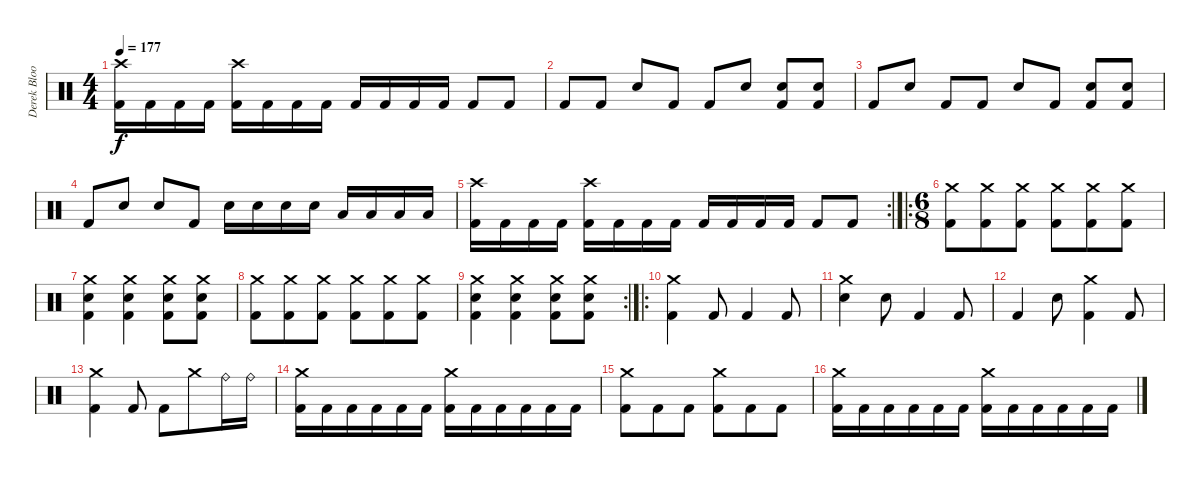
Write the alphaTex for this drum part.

\track ("Derek Bloom" "Derek Bloo") {instrument percussion}
\staff {score}
\articulation defaults
\ts (4 4)
\tempo 177
\clef neutral
\ks c
("Crash high (hit)" "Kick (hit) 2").16{dy f} "Kick (hit) 2".16 "Kick (hit) 2".16 "Kick (hit) 2".16 ("Crash high (hit)" "Kick (hit) 2").16 "Kick (hit) 2".16 "Kick (hit) 2".16 "Kick (hit) 2".16 "Kick (hit) 2".16 "Kick (hit) 2".16 "Kick (hit) 2".16 "Kick (hit) 2".16 "Kick (hit) 2".8 "Kick (hit) 2".8 |
"Kick (hit) 2".8 "Kick (hit) 2".8 "Electric Snare (hit)".8 "Kick (hit) 2".8 "Kick (hit) 2".8 "Electric Snare (hit)".8 ("Electric Snare (hit)" "Kick (hit) 2").8 ("Electric Snare (hit)" "Kick (hit) 2").8 |
"Kick (hit) 2".8 "Electric Snare (hit)".8 "Kick (hit) 2".8 "Kick (hit) 2".8 "Electric Snare (hit)".8 "Kick (hit) 2".8 ("Electric Snare (hit)" "Kick (hit) 2").8 ("Electric Snare (hit)" "Kick (hit) 2").8 |
"Kick (hit) 2".8 "Electric Snare (hit)".8 "Electric Snare (hit)".8 "Kick (hit) 2".8 "Electric Snare (hit)".16 "Electric Snare (hit)".16 "Electric Snare (hit)".16 "Electric Snare (hit)".16 "Low Tom (hit)".16 "Low Tom (hit)".16 "Low Tom (hit)".16 "Low Tom (hit)".16 |
\rc 2
("Crash high (hit)" "Kick (hit) 2").16 "Kick (hit) 2".16 "Kick (hit) 2".16 "Kick (hit) 2".16 ("Crash high (hit)" "Kick (hit) 2").16 "Kick (hit) 2".16 "Kick (hit) 2".16 "Kick (hit) 2".16 "Kick (hit) 2".16 "Kick (hit) 2".16 "Kick (hit) 2".16 "Kick (hit) 2".16 "Kick (hit) 2".8 "Kick (hit) 2".8 |
\ro
\ts (6 8)
("Crash medium (hit)" "Kick (hit) 2").8 ("Crash medium (hit)" "Kick (hit) 2").8 ("Crash medium (hit)" "Kick (hit) 2").8 ("Crash medium (hit)" "Kick (hit) 2").8 ("Crash medium (hit)" "Kick (hit) 2").8 ("Crash medium (hit)" "Kick (hit) 2").8 |
("Crash medium (hit)" "Electric Snare (hit)" "Kick (hit) 2").4 ("Crash medium (hit)" "Electric Snare (hit)" "Kick (hit) 2").4 ("Crash medium (hit)" "Electric Snare (hit)" "Kick (hit) 2").8 ("Crash medium (hit)" "Electric Snare (hit)" "Kick (hit) 2").8 |
("Crash medium (hit)" "Kick (hit) 2").8 ("Crash medium (hit)" "Kick (hit) 2").8 ("Crash medium (hit)" "Kick (hit) 2").8 ("Crash medium (hit)" "Kick (hit) 2").8 ("Crash medium (hit)" "Kick (hit) 2").8 ("Crash medium (hit)" "Kick (hit) 2").8 |
\rc 2
("Crash medium (hit)" "Electric Snare (hit)" "Kick (hit) 2").4 ("Crash medium (hit)" "Electric Snare (hit)" "Kick (hit) 2").4 ("Crash medium (hit)" "Electric Snare (hit)" "Kick (hit) 2").8 ("Crash medium (hit)" "Electric Snare (hit)" "Kick (hit) 2").8 |
\ro
("Crash medium (hit)" "Kick (hit) 2").4 "Kick (hit) 2".8 "Kick (hit) 2".4 "Kick (hit) 2".8 |
("Crash medium (hit)" "Electric Snare (hit)").4 "Electric Snare (hit)".8 "Kick (hit) 2".4 "Kick (hit) 2".8 |
"Kick (hit) 2".4 "Electric Snare (hit)".8 ("Crash medium (hit)" "Kick (hit) 2").4 "Kick (hit) 2".8 |
("Crash medium (hit)" "Kick (hit) 2").4 "Kick (hit) 2".8 "Kick (hit) 2".8 "Crash medium (hit)".8 "Ride (bell)".16 "Ride (bell)".16 |
("Crash medium (hit)" "Kick (hit) 2").16 "Kick (hit) 2".16 "Kick (hit) 2".16 "Kick (hit) 2".16 "Kick (hit) 2".16 "Kick (hit) 2".16 ("Crash medium (hit)" "Kick (hit) 2").16 "Kick (hit) 2".16 "Kick (hit) 2".16 "Kick (hit) 2".16 "Kick (hit) 2".16 "Kick (hit) 2".16 |
("Crash medium (hit)" "Kick (hit) 2").8 "Kick (hit) 2".8 "Kick (hit) 2".8 ("Crash medium (hit)" "Kick (hit) 2").8 "Kick (hit) 2".8 "Kick (hit) 2".8 |
("Crash medium (hit)" "Kick (hit) 2").16 "Kick (hit) 2".16 "Kick (hit) 2".16 "Kick (hit) 2".16 "Kick (hit) 2".16 "Kick (hit) 2".16 ("Crash medium (hit)" "Kick (hit) 2").16 "Kick (hit) 2".16 "Kick (hit) 2".16 "Kick (hit) 2".16 "Kick (hit) 2".16 "Kick (hit) 2".16
